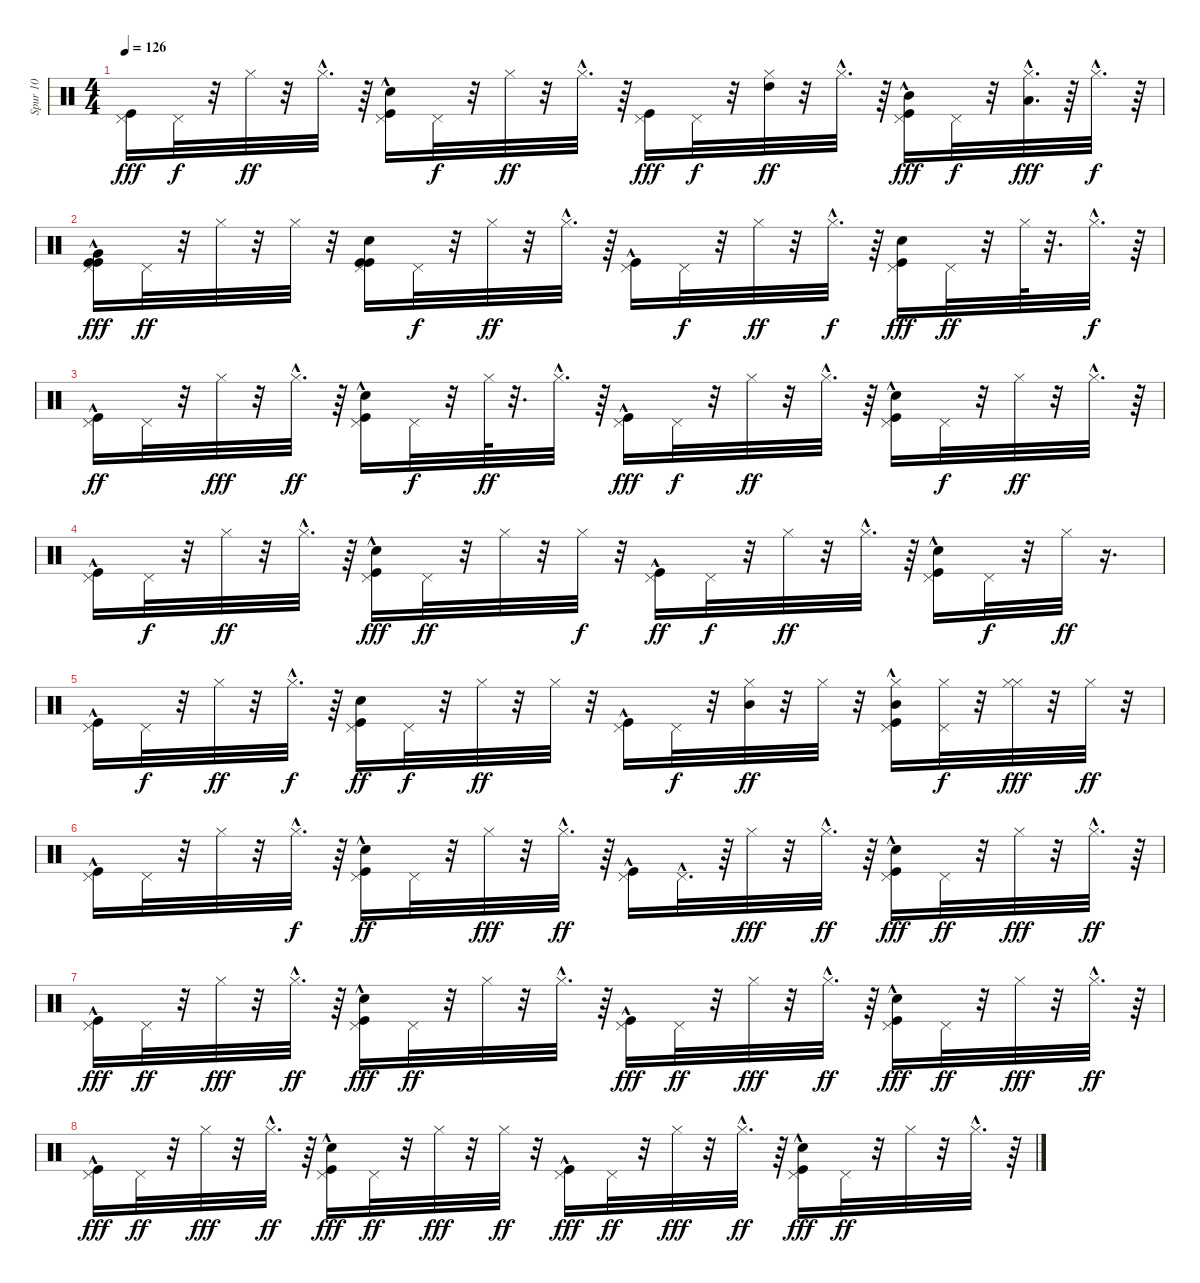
\track ("Spur 10" "Spur 10") {instrument percussion}
\staff {score}
\articulation defaults
\ts (4 4)
\tempo 126
\clef neutral
\ks c
("Kick (hit)" "Pedal Hi-Hat (hit)").16{dy fff} "Pedal Hi-Hat (hit)".32{dy f} r.32 "Hi-Hat (closed)".32{dy ff} r.32 "Hi-Hat (closed)"{hac}.32{d} r.64 ("Snare (hit) 2"{hac} "Kick (hit)"{hac} "Pedal Hi-Hat (hit)").16 "Pedal Hi-Hat (hit)".32{dy f} r.32 "Hi-Hat (closed)".32{dy ff} r.32 "Hi-Hat (closed)"{hac}.32{d} r.64 ("Kick (hit)" "Pedal Hi-Hat (hit)").16{dy fff} "Pedal Hi-Hat (hit)".32{dy f} r.32 ("High Tom (hit)" "Hi-Hat (closed)").32{dy ff} r.32 "Hi-Hat (closed)"{hac}.32{d} r.64 ("Kick (hit)"{hac} "Mid Tom (hit)"{hac} "Pedal Hi-Hat (hit)").16{dy fff} "Pedal Hi-Hat (hit)".32{dy f} r.32 ("Low Tom (hit)"{hac} "Hi-Hat (closed)").32{d dy fff} r.64 "Hi-Hat (closed)"{hac}.32{d dy f} r.64 |
("Very Low Tom (hit)"{hac} "Kick (hit)" "Kick (hit)" "Pedal Hi-Hat (hit)").16{dy fff} "Pedal Hi-Hat (hit)".32{dy ff} r.32 "Hi-Hat (closed)".32 r.32 "Hi-Hat (closed)".32 r.32 ("Kick (hit)" "Kick (hit)" "Snare (hit) 2" "Pedal Hi-Hat (hit)").16 "Pedal Hi-Hat (hit)".32{dy f} r.32 "Hi-Hat (closed)".32{dy ff} r.32 "Hi-Hat (closed)"{hac}.32{d} r.64 ("Kick (hit)"{hac} "Pedal Hi-Hat (hit)").16 "Pedal Hi-Hat (hit)".32{dy f} r.32 "Hi-Hat (closed)".32{dy ff} r.32 "Hi-Hat (closed)"{hac}.32{d dy f} r.64 ("Kick (hit)" "Snare (hit) 2" "Pedal Hi-Hat (hit)").16{dy fff} "Pedal Hi-Hat (hit)".32{dy ff} r.32 "Hi-Hat (closed)".64 r.32{d} "Hi-Hat (closed)"{hac}.32{d dy f} r.64 |
("Kick (hit)"{hac} "Pedal Hi-Hat (hit)").16{dy ff} "Pedal Hi-Hat (hit)".32 r.32 "Hi-Hat (closed)".32{dy fff} r.32 "Hi-Hat (closed)"{hac}.32{d dy ff} r.64 ("Kick (hit)"{hac} "Snare (hit) 2"{hac} "Pedal Hi-Hat (hit)").16 "Pedal Hi-Hat (hit)".32{dy f} r.32 "Hi-Hat (closed)".64{dy ff} r.32{d} "Hi-Hat (closed)"{hac}.32{d} r.64 ("Kick (hit)"{hac} "Pedal Hi-Hat (hit)").16{dy fff} "Pedal Hi-Hat (hit)".32{dy f} r.32 "Hi-Hat (closed)".32{dy ff} r.32 "Hi-Hat (closed)"{hac}.32{d} r.64 ("Snare (hit) 2"{hac} "Kick (hit)"{hac} "Pedal Hi-Hat (hit)").16 "Pedal Hi-Hat (hit)".32{dy f} r.32 "Hi-Hat (closed)".32{dy ff} r.32 "Hi-Hat (closed)"{hac}.32{d} r.64 |
("Kick (hit)"{hac} "Pedal Hi-Hat (hit)").16 "Pedal Hi-Hat (hit)".32{dy f} r.32 "Hi-Hat (closed)".32{dy ff} r.32 "Hi-Hat (closed)"{hac}.32{d} r.64 ("Snare (hit) 2" "Kick (hit)"{hac} "Pedal Hi-Hat (hit)").16{dy fff} "Pedal Hi-Hat (hit)".32{dy ff} r.32 "Hi-Hat (closed)".32 r.32 "Hi-Hat (closed)".32{dy f} r.32 ("Kick (hit)"{hac} "Pedal Hi-Hat (hit)").16{dy ff} "Pedal Hi-Hat (hit)".32{dy f} r.32 "Hi-Hat (closed)".32{dy ff} r.32 "Hi-Hat (closed)"{hac}.32{d} r.64 ("Snare (hit) 2"{hac} "Kick (hit)"{hac} "Pedal Hi-Hat (hit)").16 "Pedal Hi-Hat (hit)".32{dy f} r.32 "Hi-Hat (closed)".32{dy ff} r.16{d} |
("Kick (hit)"{hac} "Pedal Hi-Hat (hit)").16 "Pedal Hi-Hat (hit)".32{dy f} r.32 "Hi-Hat (closed)".32{dy ff} r.32 "Hi-Hat (closed)"{hac}.32{d dy f} r.64 ("Kick (hit)" "Snare (hit) 2" "Pedal Hi-Hat (hit)").16{dy ff} "Pedal Hi-Hat (hit)".32{dy f} r.32 "Hi-Hat (closed)".32{dy ff} r.32 "Hi-Hat (closed)".32 r.32 ("Kick (hit)"{hac} "Pedal Hi-Hat (hit)").16 "Pedal Hi-Hat (hit)".32{dy f} r.32 ("Mid Tom (hit)" "Hi-Hat (closed)").32{dy ff} r.32 "Hi-Hat (closed)".32 r.32 ("Kick (hit)"{hac} "Mid Tom (hit)" "Pedal Hi-Hat (hit)" "Hi-Hat (closed)").16 ("Pedal Hi-Hat (hit)" "Hi-Hat (closed)").32{dy f} r.32 ("Hi-Hat (closed)" "Hi-Hat (closed)").32{dy fff} r.32 "Hi-Hat (closed)".32{dy ff} r.32 |
("Kick (hit)"{hac} "Pedal Hi-Hat (hit)").16 "Pedal Hi-Hat (hit)".32 r.32 "Hi-Hat (closed)".32 r.32 "Hi-Hat (closed)"{hac}.32{d dy f} r.64 ("Snare (hit) 2"{hac} "Kick (hit)"{hac} "Pedal Hi-Hat (hit)").16{dy ff} "Pedal Hi-Hat (hit)".32 r.32 "Hi-Hat (closed)".32{dy fff} r.32 "Hi-Hat (closed)"{hac}.32{d dy ff} r.64 ("Kick (hit)"{hac} "Pedal Hi-Hat (hit)").16 "Pedal Hi-Hat (hit)"{hac}.32{d} r.64 "Hi-Hat (closed)".32{dy fff} r.32 "Hi-Hat (closed)"{hac}.32{d dy ff} r.64 ("Kick (hit)"{hac} "Snare (hit) 2"{hac} "Pedal Hi-Hat (hit)").16{dy fff} "Pedal Hi-Hat (hit)".32{dy ff} r.32 "Hi-Hat (closed)".32{dy fff} r.32 "Hi-Hat (closed)"{hac}.32{d dy ff} r.64 |
("Kick (hit)"{hac} "Pedal Hi-Hat (hit)").16{dy fff} "Pedal Hi-Hat (hit)".32{dy ff} r.32 "Hi-Hat (closed)".32{dy fff} r.32 "Hi-Hat (closed)"{hac}.32{d dy ff} r.64 ("Snare (hit) 2"{hac} "Kick (hit)"{hac} "Pedal Hi-Hat (hit)").16{dy fff} "Pedal Hi-Hat (hit)".32{dy ff} r.32 "Hi-Hat (closed)".32 r.32 "Hi-Hat (closed)"{hac}.32{d} r.64 ("Kick (hit)"{hac} "Pedal Hi-Hat (hit)").16{dy fff} "Pedal Hi-Hat (hit)".32{dy ff} r.32 "Hi-Hat (closed)".32{dy fff} r.32 "Hi-Hat (closed)"{hac}.32{d dy ff} r.64 ("Kick (hit)"{hac} "Snare (hit) 2" "Pedal Hi-Hat (hit)").16{dy fff} "Pedal Hi-Hat (hit)".32{dy ff} r.32 "Hi-Hat (closed)".32{dy fff} r.32 "Hi-Hat (closed)"{hac}.32{d dy ff} r.64 |
("Kick (hit)"{hac} "Pedal Hi-Hat (hit)").16{dy fff} "Pedal Hi-Hat (hit)".32{dy ff} r.32 "Hi-Hat (closed)".32{dy fff} r.32 "Hi-Hat (closed)"{hac}.32{d dy ff} r.64 ("Kick (hit)"{hac} "Snare (hit) 2"{hac} "Pedal Hi-Hat (hit)").16{dy fff} "Pedal Hi-Hat (hit)".32{dy ff} r.32 "Hi-Hat (closed)".32{dy fff} r.32 "Hi-Hat (closed)".32{dy ff} r.32 ("Kick (hit)"{hac} "Pedal Hi-Hat (hit)").16{dy fff} "Pedal Hi-Hat (hit)".32{dy ff} r.32 "Hi-Hat (closed)".32{dy fff} r.32 "Hi-Hat (closed)"{hac}.32{d dy ff} r.64 ("Snare (hit) 2"{hac} "Kick (hit)"{hac} "Pedal Hi-Hat (hit)").16{dy fff} "Pedal Hi-Hat (hit)".32{dy ff} r.32 "Hi-Hat (closed)".32 r.32 "Hi-Hat (closed)"{hac}.32{d} r.64
